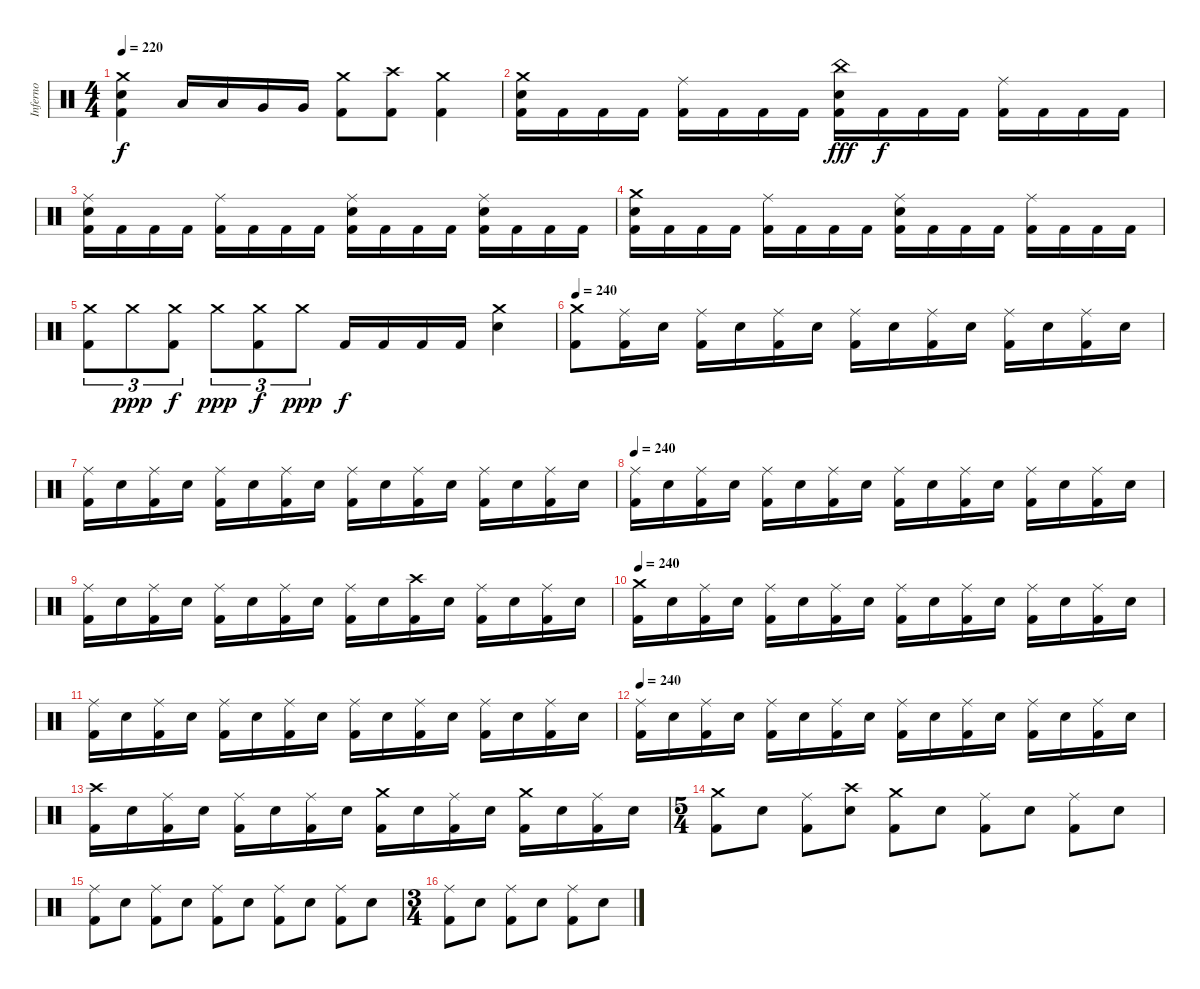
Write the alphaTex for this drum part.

\track ("Inferno" "Inferno") {instrument percussion}
\staff {score}
\articulation defaults
\ts (4 4)
\tempo 220
\clef neutral
\ks c
("Crash medium (hit)" "Snare (hit) 2" "Kick (hit) 2").4{dy f} "Low Tom (hit)".16 "Low Tom (hit)".16 "Very Low Tom (hit)".16 "Very Low Tom (hit)".16 ("Crash medium (hit)" "Kick (hit) 2").8 ("Crash high (hit)" "Kick (hit) 2").8 ("Crash medium (hit)" "Kick (hit) 2").4 |
("Crash medium (hit)" "Snare (hit) 2" "Kick (hit) 2").16 "Kick (hit) 2".16 "Kick (hit) 2".16 "Kick (hit) 2".16 ("Ride (middle)" "Kick (hit) 2").16 "Kick (hit) 2".16 "Kick (hit) 2".16 "Kick (hit) 2".16 ("China (hit)" "Snare (hit) 2" "Kick (hit) 2").16{dy fff} "Kick (hit) 2".16{dy f} "Kick (hit) 2".16 "Kick (hit) 2".16 ("Ride (middle)" "Kick (hit) 2").16 "Kick (hit) 2".16 "Kick (hit) 2".16 "Kick (hit) 2".16 |
("Ride (middle)" "Snare (hit) 2" "Kick (hit) 2").16 "Kick (hit) 2".16 "Kick (hit) 2".16 "Kick (hit) 2".16 ("Ride (middle)" "Kick (hit) 2").16 "Kick (hit) 2".16 "Kick (hit) 2".16 "Kick (hit) 2".16 ("Ride (middle)" "Snare (hit) 2" "Kick (hit) 2").16 "Kick (hit) 2".16 "Kick (hit) 2".16 "Kick (hit) 2".16 ("Ride (middle)" "Snare (hit) 2" "Kick (hit) 2").16 "Kick (hit) 2".16 "Kick (hit) 2".16 "Kick (hit) 2".16 |
("Crash medium (hit)" "Snare (hit) 2" "Kick (hit) 2").16 "Kick (hit) 2".16 "Kick (hit) 2".16 "Kick (hit) 2".16 ("Ride (middle)" "Kick (hit) 2").16 "Kick (hit) 2".16 "Kick (hit) 2".16 "Kick (hit) 2".16 ("Ride (middle)" "Snare (hit) 2" "Kick (hit) 2").16 "Kick (hit) 2".16 "Kick (hit) 2".16 "Kick (hit) 2".16 ("Ride (middle)" "Kick (hit) 2").16 "Kick (hit) 2".16 "Kick (hit) 2".16 "Kick (hit) 2".16 |
("Crash medium (hit)" "Kick (hit) 2").8{tu (3 2)} "Crash medium (hit)".8{tu (3 2) dy ppp} ("Crash medium (hit)" "Kick (hit) 2").8{tu (3 2) dy f} "Crash medium (hit)".8{tu (3 2) dy ppp} ("Crash medium (hit)" "Kick (hit) 2").8{tu (3 2) dy f} "Crash medium (hit)".8{tu (3 2) dy ppp} "Kick (hit) 2".16{dy f} "Kick (hit) 2".16 "Kick (hit) 2".16 "Kick (hit) 2".16 ("Crash medium (hit)" "Snare (hit) 2").4 |
\tempo 240
("Crash medium (hit)" "Kick (hit) 2").8 ("Ride (middle)" "Kick (hit) 2").16 "Snare (hit) 2".16 ("Ride (middle)" "Kick (hit) 2").16 "Snare (hit) 2".16 ("Ride (middle)" "Kick (hit) 2").16 "Snare (hit) 2".16 ("Ride (middle)" "Kick (hit) 2").16 "Snare (hit) 2".16 ("Ride (middle)" "Kick (hit) 2").16 "Snare (hit) 2".16 ("Ride (middle)" "Kick (hit) 2").16 "Snare (hit) 2".16 ("Ride (middle)" "Kick (hit) 2").16 "Snare (hit) 2".16 |
("Ride (middle)" "Kick (hit) 2").16 "Snare (hit) 2".16 ("Ride (middle)" "Kick (hit) 2").16 "Snare (hit) 2".16 ("Ride (middle)" "Kick (hit) 2").16 "Snare (hit) 2".16 ("Ride (middle)" "Kick (hit) 2").16 "Snare (hit) 2".16 ("Ride (middle)" "Kick (hit) 2").16 "Snare (hit) 2".16 ("Ride (middle)" "Kick (hit) 2").16 "Snare (hit) 2".16 ("Ride (middle)" "Kick (hit) 2").16 "Snare (hit) 2".16 ("Ride (middle)" "Kick (hit) 2").16 "Snare (hit) 2".16 |
\tempo 240
("Ride (middle)" "Kick (hit) 2").16 "Snare (hit) 2".16 ("Ride (middle)" "Kick (hit) 2").16 "Snare (hit) 2".16 ("Ride (middle)" "Kick (hit) 2").16 "Snare (hit) 2".16 ("Ride (middle)" "Kick (hit) 2").16 "Snare (hit) 2".16 ("Ride (middle)" "Kick (hit) 2").16 "Snare (hit) 2".16 ("Ride (middle)" "Kick (hit) 2").16 "Snare (hit) 2".16 ("Ride (middle)" "Kick (hit) 2").16 "Snare (hit) 2".16 ("Ride (middle)" "Kick (hit) 2").16 "Snare (hit) 2".16 |
("Ride (middle)" "Kick (hit) 2").16 "Snare (hit) 2".16 ("Ride (middle)" "Kick (hit) 2").16 "Snare (hit) 2".16 ("Ride (middle)" "Kick (hit) 2").16 "Snare (hit) 2".16 ("Ride (middle)" "Kick (hit) 2").16 "Snare (hit) 2".16 ("Ride (middle)" "Kick (hit) 2").16 "Snare (hit) 2".16 ("Crash high (hit)" "Kick (hit) 2").16 "Snare (hit) 2".16 ("Ride (middle)" "Kick (hit) 2").16 "Snare (hit) 2".16 ("Ride (middle)" "Kick (hit) 2").16 "Snare (hit) 2".16 |
\tempo 240
("Crash medium (hit)" "Kick (hit) 2").16 "Snare (hit) 2".16 ("Ride (middle)" "Kick (hit) 2").16 "Snare (hit) 2".16 ("Ride (middle)" "Kick (hit) 2").16 "Snare (hit) 2".16 ("Ride (middle)" "Kick (hit) 2").16 "Snare (hit) 2".16 ("Ride (middle)" "Kick (hit) 2").16 "Snare (hit) 2".16 ("Ride (middle)" "Kick (hit) 2").16 "Snare (hit) 2".16 ("Ride (middle)" "Kick (hit) 2").16 "Snare (hit) 2".16 ("Ride (middle)" "Kick (hit) 2").16 "Snare (hit) 2".16 |
("Ride (middle)" "Kick (hit) 2").16 "Snare (hit) 2".16 ("Ride (middle)" "Kick (hit) 2").16 "Snare (hit) 2".16 ("Ride (middle)" "Kick (hit) 2").16 "Snare (hit) 2".16 ("Ride (middle)" "Kick (hit) 2").16 "Snare (hit) 2".16 ("Ride (middle)" "Kick (hit) 2").16 "Snare (hit) 2".16 ("Ride (middle)" "Kick (hit) 2").16 "Snare (hit) 2".16 ("Ride (middle)" "Kick (hit) 2").16 "Snare (hit) 2".16 ("Ride (middle)" "Kick (hit) 2").16 "Snare (hit) 2".16 |
\tempo 240
("Ride (middle)" "Kick (hit) 2").16 "Snare (hit) 2".16 ("Ride (middle)" "Kick (hit) 2").16 "Snare (hit) 2".16 ("Ride (middle)" "Kick (hit) 2").16 "Snare (hit) 2".16 ("Ride (middle)" "Kick (hit) 2").16 "Snare (hit) 2".16 ("Ride (middle)" "Kick (hit) 2").16 "Snare (hit) 2".16 ("Ride (middle)" "Kick (hit) 2").16 "Snare (hit) 2".16 ("Ride (middle)" "Kick (hit) 2").16 "Snare (hit) 2".16 ("Ride (middle)" "Kick (hit) 2").16 "Snare (hit) 2".16 |
("Crash high (hit)" "Kick (hit) 2").16 "Snare (hit) 2".16 ("Ride (middle)" "Kick (hit) 2").16 "Snare (hit) 2".16 ("Ride (middle)" "Kick (hit) 2").16 "Snare (hit) 2".16 ("Ride (middle)" "Kick (hit) 2").16 "Snare (hit) 2".16 ("Crash medium (hit)" "Kick (hit) 2").16 "Snare (hit) 2".16 ("Ride (middle)" "Kick (hit) 2").16 "Snare (hit) 2".16 ("Crash medium (hit)" "Kick (hit) 2").16 "Snare (hit) 2".16 ("Ride (middle)" "Kick (hit) 2").16 "Snare (hit) 2".16 |
\ts (5 4)
("Crash medium (hit)" "Kick (hit) 2").8 "Snare (hit) 2".8 ("Ride (middle)" "Kick (hit) 2").8 ("Crash high (hit)" "Snare (hit) 2").8 ("Crash medium (hit)" "Kick (hit) 2").8 "Snare (hit) 2".8 ("Ride (middle)" "Kick (hit) 2").8 "Snare (hit) 2".8 ("Ride (middle)" "Kick (hit) 2").8 "Snare (hit) 2".8 |
("Ride (middle)" "Kick (hit) 2").8 "Snare (hit) 2".8 ("Ride (middle)" "Kick (hit) 2").8 "Snare (hit) 2".8 ("Ride (middle)" "Kick (hit) 2").8 "Snare (hit) 2".8 ("Ride (middle)" "Kick (hit) 2").8 "Snare (hit) 2".8 ("Ride (middle)" "Kick (hit) 2").8 "Snare (hit) 2".8 |
\ts (3 4)
("Ride (middle)" "Kick (hit) 2").8 "Snare (hit) 2".8 ("Ride (middle)" "Kick (hit) 2").8 "Snare (hit) 2".8 ("Ride (middle)" "Kick (hit) 2").8 "Snare (hit) 2".8
